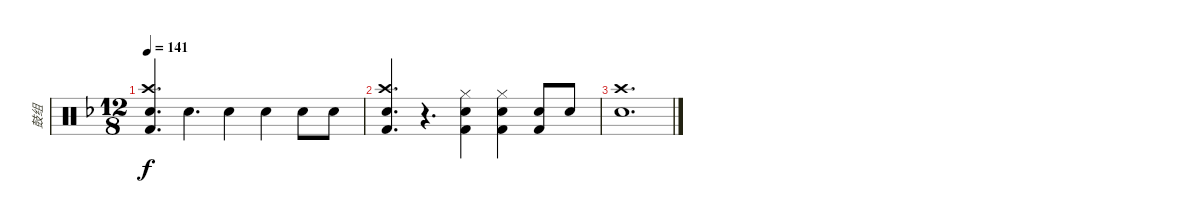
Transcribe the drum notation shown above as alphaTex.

\track ("鼓组" "鼓组") {instrument percussion}
\staff {score}
\articulation defaults
\ts (12 8)
\tempo 141
\clef neutral
\ks f
("Snare (hit) 2" "Crash high (hit)" "Kick (hit) 2").4{d dy f} "Snare (hit) 2".4{d} "Snare (hit) 2".4 "Snare (hit) 2".4 "Snare (hit) 2".8 "Snare (hit) 2".8 |
("Snare (hit) 2" "Crash high (hit)" "Kick (hit) 2").4{d} r.4{d} ("Snare (hit) 2" "Hi-Hat (closed)" "Kick (hit) 2").4 ("Snare (hit) 2" "Hi-Hat (closed)" "Kick (hit) 2").4 ("Snare (hit) 2" "Kick (hit) 2").8 "Snare (hit) 2".8 |
("Snare (hit) 2" "Crash high (hit)").1{d}
